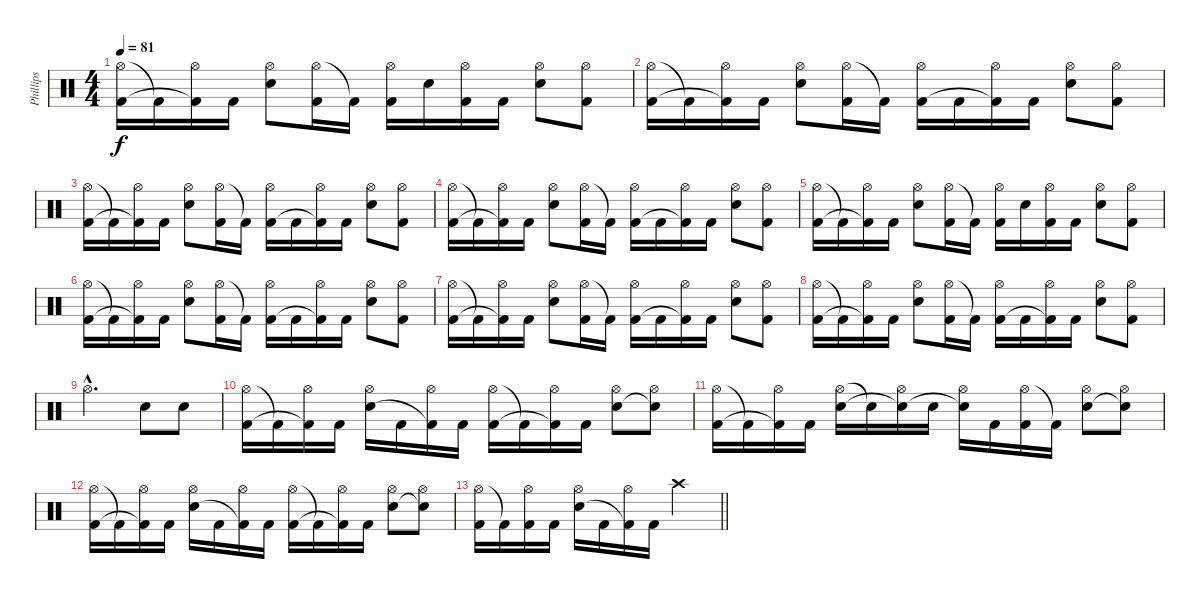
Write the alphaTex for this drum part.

\track ("Phillips" "Phillips") {instrument percussion}
\staff {score}
\articulation defaults
\ts (4 4)
\tempo 81
\clef neutral
\ks c
("Hi-Hat (open)" "Kick (hit) 2").16{dy f} "Kick (hit) 2"{t}.16 ("Hi-Hat (open)" "Kick (hit) 2"{t}).16 "Kick (hit) 2".16 ("Hi-Hat (open)" "Snare (hit) 2").8 ("Hi-Hat (open)" "Kick (hit) 2").16 "Kick (hit) 2"{t}.16 ("Hi-Hat (open)" "Kick (hit) 2").16 "Snare (hit) 2".16 ("Hi-Hat (open)" "Kick (hit) 2").16 "Kick (hit) 2".16 ("Hi-Hat (open)" "Snare (hit) 2").8 ("Hi-Hat (open)" "Kick (hit) 2").8 |
("Hi-Hat (open)" "Kick (hit) 2").16 "Kick (hit) 2"{t}.16 ("Hi-Hat (open)" "Kick (hit) 2"{t}).16 "Kick (hit) 2".16 ("Hi-Hat (open)" "Snare (hit) 2").8 ("Hi-Hat (open)" "Kick (hit) 2").16 "Kick (hit) 2"{t}.16 ("Hi-Hat (open)" "Kick (hit) 2").16 "Kick (hit) 2".16 ("Hi-Hat (open)" "Kick (hit) 2"{t}).16 "Kick (hit) 2".16 ("Hi-Hat (open)" "Snare (hit) 2").8 ("Hi-Hat (open)" "Kick (hit) 2").8 |
("Hi-Hat (open)" "Kick (hit) 2").16 "Kick (hit) 2"{t}.16 ("Hi-Hat (open)" "Kick (hit) 2"{t}).16 "Kick (hit) 2".16 ("Hi-Hat (open)" "Snare (hit) 2").8 ("Hi-Hat (open)" "Kick (hit) 2").16 "Kick (hit) 2"{t}.16 ("Hi-Hat (open)" "Kick (hit) 2").16 "Kick (hit) 2".16 ("Hi-Hat (open)" "Kick (hit) 2"{t}).16 "Kick (hit) 2".16 ("Hi-Hat (open)" "Snare (hit) 2").8 ("Hi-Hat (open)" "Kick (hit) 2").8 |
("Hi-Hat (open)" "Kick (hit) 2").16 "Kick (hit) 2"{t}.16 ("Hi-Hat (open)" "Kick (hit) 2"{t}).16 "Kick (hit) 2".16 ("Hi-Hat (open)" "Snare (hit) 2").8 ("Hi-Hat (open)" "Kick (hit) 2").16 "Kick (hit) 2"{t}.16 ("Hi-Hat (open)" "Kick (hit) 2").16 "Kick (hit) 2".16 ("Hi-Hat (open)" "Kick (hit) 2"{t}).16 "Kick (hit) 2".16 ("Hi-Hat (open)" "Snare (hit) 2").8 ("Hi-Hat (open)" "Kick (hit) 2").8 |
("Hi-Hat (open)" "Kick (hit) 2").16 "Kick (hit) 2"{t}.16 ("Hi-Hat (open)" "Kick (hit) 2"{t}).16 "Kick (hit) 2".16 ("Hi-Hat (open)" "Snare (hit) 2").8 ("Hi-Hat (open)" "Kick (hit) 2").16 "Kick (hit) 2"{t}.16 ("Hi-Hat (open)" "Kick (hit) 2").16 "Snare (hit) 2".16 ("Hi-Hat (open)" "Kick (hit) 2").16 "Kick (hit) 2".16 ("Hi-Hat (open)" "Snare (hit) 2").8 ("Hi-Hat (open)" "Kick (hit) 2").8 |
("Hi-Hat (open)" "Kick (hit) 2").16 "Kick (hit) 2"{t}.16 ("Hi-Hat (open)" "Kick (hit) 2"{t}).16 "Kick (hit) 2".16 ("Hi-Hat (open)" "Snare (hit) 2").8 ("Hi-Hat (open)" "Kick (hit) 2").16 "Kick (hit) 2"{t}.16 ("Hi-Hat (open)" "Kick (hit) 2").16 "Kick (hit) 2".16 ("Hi-Hat (open)" "Kick (hit) 2"{t}).16 "Kick (hit) 2".16 ("Hi-Hat (open)" "Snare (hit) 2").8 ("Hi-Hat (open)" "Kick (hit) 2").8 |
("Hi-Hat (open)" "Kick (hit) 2").16 "Kick (hit) 2"{t}.16 ("Hi-Hat (open)" "Kick (hit) 2"{t}).16 "Kick (hit) 2".16 ("Hi-Hat (open)" "Snare (hit) 2").8 ("Hi-Hat (open)" "Kick (hit) 2").16 "Kick (hit) 2"{t}.16 ("Hi-Hat (open)" "Kick (hit) 2").16 "Kick (hit) 2".16 ("Hi-Hat (open)" "Kick (hit) 2"{t}).16 "Kick (hit) 2".16 ("Hi-Hat (open)" "Snare (hit) 2").8 ("Hi-Hat (open)" "Kick (hit) 2").8 |
("Hi-Hat (open)" "Kick (hit) 2").16 "Kick (hit) 2"{t}.16 ("Hi-Hat (open)" "Kick (hit) 2"{t}).16 "Kick (hit) 2".16 ("Hi-Hat (open)" "Snare (hit) 2").8 ("Hi-Hat (open)" "Kick (hit) 2").16 "Kick (hit) 2"{t}.16 ("Hi-Hat (open)" "Kick (hit) 2").16 "Kick (hit) 2".16 ("Hi-Hat (open)" "Kick (hit) 2"{t}).16 "Kick (hit) 2".16 ("Hi-Hat (open)" "Snare (hit) 2").8 ("Hi-Hat (open)" "Kick (hit) 2").8 |
"Hi-Hat (open)"{hac}.2{d} "Snare (hit) 2".8 "Snare (hit) 2".8 |
("Hi-Hat (open)" "Kick (hit) 2").16 "Kick (hit) 2"{t}.16 ("Hi-Hat (open)" "Kick (hit) 2"{t}).16 "Kick (hit) 2".16 ("Hi-Hat (open)" "Snare (hit) 2").16 "Kick (hit) 2".16 ("Hi-Hat (open)" "Kick (hit) 2"{t}).16 "Kick (hit) 2".16 ("Hi-Hat (open)" "Kick (hit) 2").16 "Kick (hit) 2"{t}.16 ("Hi-Hat (open)" "Kick (hit) 2"{t}).16 "Kick (hit) 2".16 ("Hi-Hat (open)" "Snare (hit) 2").8 ("Hi-Hat (open)" "Snare (hit) 2"{t}).8 |
("Hi-Hat (open)" "Kick (hit) 2").16 "Kick (hit) 2"{t}.16 ("Hi-Hat (open)" "Kick (hit) 2"{t}).16 "Kick (hit) 2".16 ("Hi-Hat (open)" "Snare (hit) 2").16 "Snare (hit) 2"{t}.16 ("Hi-Hat (open)" "Snare (hit) 2"{t}).16 "Snare (hit) 2".16 ("Hi-Hat (open)" "Snare (hit) 2"{t}).16 "Kick (hit) 2".16 ("Hi-Hat (open)" "Kick (hit) 2").16 "Kick (hit) 2"{t}.16 ("Hi-Hat (open)" "Snare (hit) 2").8 ("Hi-Hat (open)" "Snare (hit) 2"{t}).8 |
("Hi-Hat (open)" "Kick (hit) 2").16 "Kick (hit) 2"{t}.16 ("Hi-Hat (open)" "Kick (hit) 2"{t}).16 "Kick (hit) 2".16 ("Hi-Hat (open)" "Snare (hit) 2").16 "Kick (hit) 2".16 ("Hi-Hat (open)" "Kick (hit) 2"{t}).16 "Kick (hit) 2".16 ("Hi-Hat (open)" "Kick (hit) 2").16 "Kick (hit) 2"{t}.16 ("Hi-Hat (open)" "Kick (hit) 2"{t}).16 "Kick (hit) 2".16 ("Hi-Hat (open)" "Snare (hit) 2").8 ("Hi-Hat (open)" "Snare (hit) 2"{t}).8 |
\barLineRight lightlight
("Hi-Hat (open)" "Kick (hit) 2").16 "Kick (hit) 2"{t}.16 ("Hi-Hat (open)" "Kick (hit) 2").16 "Kick (hit) 2".16 ("Hi-Hat (open)" "Snare (hit) 2").16 "Kick (hit) 2".16 ("Hi-Hat (open)" "Kick (hit) 2"{t}).16 "Kick (hit) 2".16 "Crash high (hit)".2
